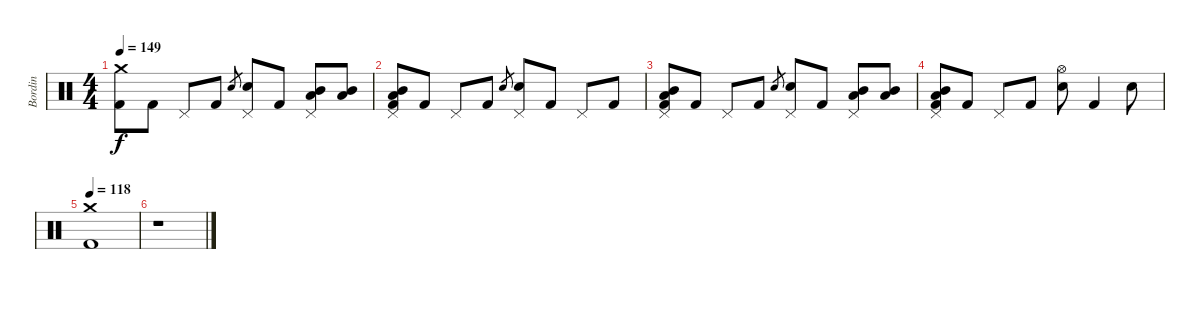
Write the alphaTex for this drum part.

\track ("Bordin" "Bordin") {instrument percussion}
\staff {score}
\articulation defaults
\ts (4 4)
\tempo 149
\clef neutral
\ks c
("Crash medium (hit)" "Kick (hit) 2").8{dy f} "Kick (hit) 2".8 "Pedal Hi-Hat (hit)".8 "Kick (hit) 2".8 "Electric Snare (hit)".8{gr} ("Pedal Hi-Hat (hit)" "Electric Snare (hit)").8 "Kick (hit) 2".8 ("Low Tom (hit)" "Mid Tom (hit)" "Pedal Hi-Hat (hit)").8 ("Low Tom (hit)" "Mid Tom (hit)").8 |
("Mid Tom (hit)" "Low Tom (hit)" "Pedal Hi-Hat (hit)" "Kick (hit) 2").8 "Kick (hit) 2".8 "Pedal Hi-Hat (hit)".8 "Kick (hit) 2".8 "Electric Snare (hit)".8{gr} ("Pedal Hi-Hat (hit)" "Electric Snare (hit)").8 "Kick (hit) 2".8 "Pedal Hi-Hat (hit)".8 "Kick (hit) 2".8 |
("Mid Tom (hit)" "Low Tom (hit)" "Pedal Hi-Hat (hit)" "Kick (hit) 2").8 "Kick (hit) 2".8 "Pedal Hi-Hat (hit)".8 "Kick (hit) 2".8 "Electric Snare (hit)".8{gr} ("Pedal Hi-Hat (hit)" "Electric Snare (hit)").8 "Kick (hit) 2".8 ("Low Tom (hit)" "Mid Tom (hit)" "Pedal Hi-Hat (hit)").8 ("Low Tom (hit)" "Mid Tom (hit)").8 |
("Mid Tom (hit)" "Low Tom (hit)" "Pedal Hi-Hat (hit)" "Kick (hit) 2").8 "Kick (hit) 2".8 "Pedal Hi-Hat (hit)".8 "Kick (hit) 2".8 ("Hi-Hat (open)" "Electric Snare (hit)").8 "Kick (hit) 2".4 "Electric Snare (hit)".8 |
\tempo 118
("Crash medium (hit)" "Kick (hit) 2").1 |
r.1
